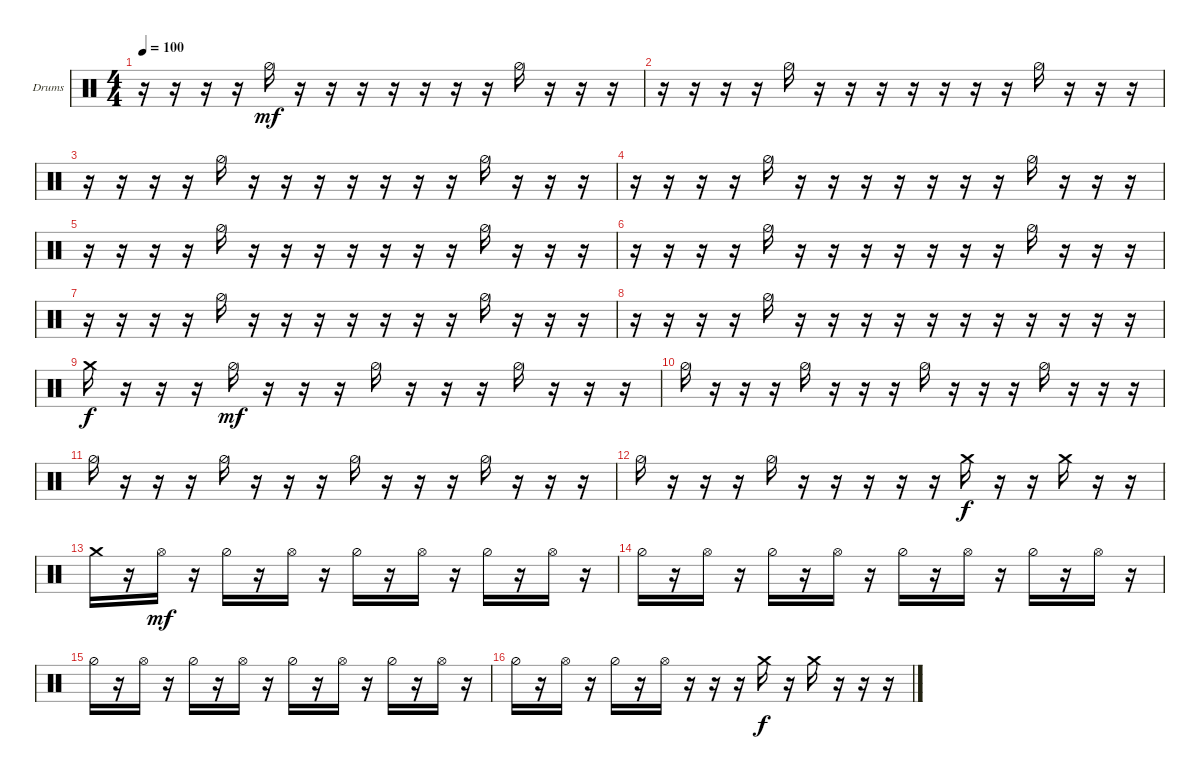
\defaultSystemsLayout 4
\bracketExtendMode groupsimilarinstruments
\firstSystemTrackNameOrientation horizontal
\otherSystemsTrackNameOrientation horizontal
\track ("Drumkit" "Drums") {instrument percussion}
\staff {score}
\articulation defaults
\ts (4 4)
\tempo 100
\clef neutral
\scale
0.474178
\ks c
r.16{dy mf} r.16 r.16 r.16 "Hi-Hat (half)".16 r.16 r.16 r.16 r.16 r.16 r.16 r.16 "Hi-Hat (half)".16 r.16 r.16 r.16 |
\scale
0.262911 r.16 r.16 r.16 r.16 "Hi-Hat (half)".16 r.16 r.16 r.16 r.16 r.16 r.16 r.16 "Hi-Hat (half)".16 r.16 r.16 r.16 |
\scale
0.262911 r.16 r.16 r.16 r.16 "Hi-Hat (half)".16 r.16 r.16 r.16 r.16 r.16 r.16 r.16 "Hi-Hat (half)".16 r.16 r.16 r.16 |
\scale
0.333333 r.16 r.16 r.16 r.16 "Hi-Hat (half)".16 r.16 r.16 r.16 r.16 r.16 r.16 r.16 "Hi-Hat (half)".16 r.16 r.16 r.16 |
\scale
0.333333 r.16 r.16 r.16 r.16 "Hi-Hat (half)".16 r.16 r.16 r.16 r.16 r.16 r.16 r.16 "Hi-Hat (half)".16 r.16 r.16 r.16 |
\scale
0.333333 r.16 r.16 r.16 r.16 "Hi-Hat (half)".16 r.16 r.16 r.16 r.16 r.16 r.16 r.16 "Hi-Hat (half)".16 r.16 r.16 r.16 |
r.16 r.16 r.16 r.16 "Hi-Hat (half)".16 r.16 r.16 r.16 r.16 r.16 r.16 r.16 "Hi-Hat (half)".16 r.16 r.16 r.16 |
r.16 r.16 r.16 r.16 "Hi-Hat (half)".16 r.16 r.16 r.16 r.16 r.16 r.16 r.16 r.16 r.16 r.16 r.16 |
"Crash medium (hit)".16{dy f} r.16 r.16 r.16 "Hi-Hat (half)".16{dy mf} r.16 r.16 r.16 "Hi-Hat (half)".16 r.16 r.16 r.16 "Hi-Hat (half)".16 r.16 r.16 r.16 |
"Hi-Hat (half)".16 r.16 r.16 r.16 "Hi-Hat (half)".16 r.16 r.16 r.16 "Hi-Hat (half)".16 r.16 r.16 r.16 "Hi-Hat (half)".16 r.16 r.16 r.16 |
"Hi-Hat (half)".16 r.16 r.16 r.16 "Hi-Hat (half)".16 r.16 r.16 r.16 "Hi-Hat (half)".16 r.16 r.16 r.16 "Hi-Hat (half)".16 r.16 r.16 r.16 |
"Hi-Hat (half)".16 r.16 r.16 r.16 "Hi-Hat (half)".16 r.16 r.16 r.16 r.16 r.16 "Crash medium (hit)".16{dy f} r.16 r.16 "Crash medium (hit)".16 r.16 r.16 |
"Crash medium (hit)".16 r.16 "Hi-Hat (open)".16{dy mf} r.16 "Hi-Hat (half)".16 r.16 "Hi-Hat (open)".16 r.16 "Hi-Hat (half)".16 r.16 "Hi-Hat (open)".16 r.16 "Hi-Hat (half)".16 r.16 "Hi-Hat (open)".16 r.16 |
"Hi-Hat (half)".16 r.16 "Hi-Hat (open)".16 r.16 "Hi-Hat (half)".16 r.16 "Hi-Hat (open)".16 r.16 "Hi-Hat (half)".16 r.16 "Hi-Hat (open)".16 r.16 "Hi-Hat (half)".16 r.16 "Hi-Hat (open)".16 r.16 |
"Hi-Hat (half)".16 r.16 "Hi-Hat (open)".16 r.16 "Hi-Hat (half)".16 r.16 "Hi-Hat (open)".16 r.16 "Hi-Hat (half)".16 r.16 "Hi-Hat (open)".16 r.16 "Hi-Hat (half)".16 r.16 "Hi-Hat (open)".16 r.16 |
"Hi-Hat (half)".16 r.16 "Hi-Hat (open)".16 r.16 "Hi-Hat (half)".16 r.16 "Hi-Hat (open)".16 r.16 r.16 r.16 "Crash medium (hit)".16{dy f} r.16 "Crash medium (hit)".16 r.16 r.16 r.16
